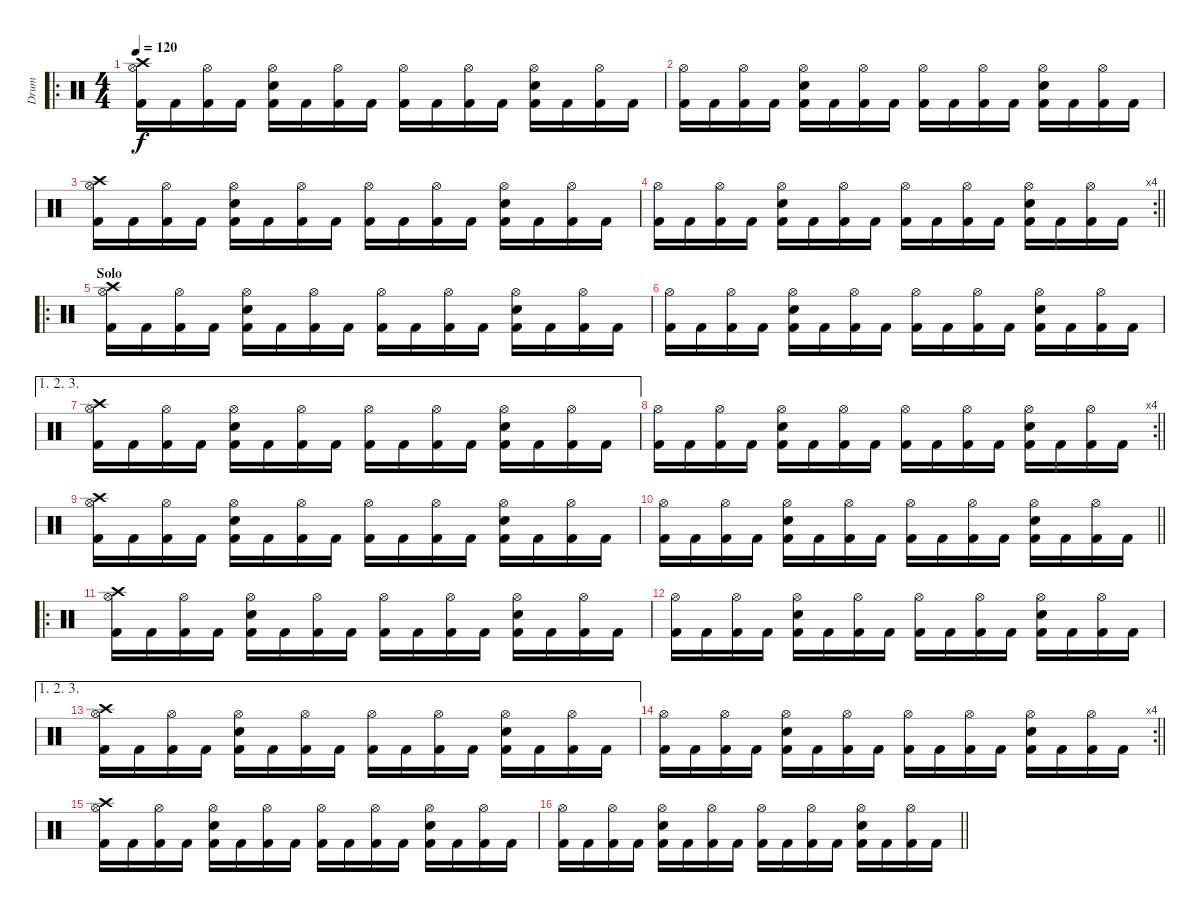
\track ("Drum" "Drum") {instrument percussion}
\staff {score}
\articulation defaults
\ro
\ts (4 4)
\tempo 120
\clef neutral
\ks c
("Hi-Hat (open)" "Crash high (hit)" "Kick (hit) 2").16{dy f} "Kick (hit) 2".16 ("Hi-Hat (open)" "Kick (hit) 2").16 "Kick (hit) 2".16 ("Hi-Hat (open)" "Snare (hit) 2" "Kick (hit) 2").16 "Kick (hit) 2".16 ("Hi-Hat (open)" "Kick (hit) 2").16 "Kick (hit) 2".16 ("Hi-Hat (open)" "Kick (hit) 2").16 "Kick (hit) 2".16 ("Hi-Hat (open)" "Kick (hit) 2").16 "Kick (hit) 2".16 ("Hi-Hat (open)" "Snare (hit) 2" "Kick (hit) 2").16 "Kick (hit) 2".16 ("Hi-Hat (open)" "Kick (hit) 2").16 "Kick (hit) 2".16 |
("Hi-Hat (open)" "Kick (hit) 2").16 "Kick (hit) 2".16 ("Hi-Hat (open)" "Kick (hit) 2").16 "Kick (hit) 2".16 ("Hi-Hat (open)" "Snare (hit) 2" "Kick (hit) 2").16 "Kick (hit) 2".16 ("Hi-Hat (open)" "Kick (hit) 2").16 "Kick (hit) 2".16 ("Hi-Hat (open)" "Kick (hit) 2").16 "Kick (hit) 2".16 ("Hi-Hat (open)" "Kick (hit) 2").16 "Kick (hit) 2".16 ("Hi-Hat (open)" "Snare (hit) 2" "Kick (hit) 2").16 "Kick (hit) 2".16 ("Hi-Hat (open)" "Kick (hit) 2").16 "Kick (hit) 2".16 |
("Hi-Hat (open)" "Crash high (hit)" "Kick (hit) 2").16 "Kick (hit) 2".16 ("Hi-Hat (open)" "Kick (hit) 2").16 "Kick (hit) 2".16 ("Hi-Hat (open)" "Snare (hit) 2" "Kick (hit) 2").16 "Kick (hit) 2".16 ("Hi-Hat (open)" "Kick (hit) 2").16 "Kick (hit) 2".16 ("Hi-Hat (open)" "Kick (hit) 2").16 "Kick (hit) 2".16 ("Hi-Hat (open)" "Kick (hit) 2").16 "Kick (hit) 2".16 ("Hi-Hat (open)" "Snare (hit) 2" "Kick (hit) 2").16 "Kick (hit) 2".16 ("Hi-Hat (open)" "Kick (hit) 2").16 "Kick (hit) 2".16 |
\rc 4
\barLineRight lightlight
("Hi-Hat (open)" "Kick (hit) 2").16 "Kick (hit) 2".16 ("Hi-Hat (open)" "Kick (hit) 2").16 "Kick (hit) 2".16 ("Hi-Hat (open)" "Snare (hit) 2" "Kick (hit) 2").16 "Kick (hit) 2".16 ("Hi-Hat (open)" "Kick (hit) 2").16 "Kick (hit) 2".16 ("Hi-Hat (open)" "Kick (hit) 2").16 "Kick (hit) 2".16 ("Hi-Hat (open)" "Kick (hit) 2").16 "Kick (hit) 2".16 ("Hi-Hat (open)" "Snare (hit) 2" "Kick (hit) 2").16 "Kick (hit) 2".16 ("Hi-Hat (open)" "Kick (hit) 2").16 "Kick (hit) 2".16 |
\ro
\section ("" "Solo")
("Hi-Hat (open)" "Crash high (hit)" "Kick (hit) 2").16 "Kick (hit) 2".16 ("Hi-Hat (open)" "Kick (hit) 2").16 "Kick (hit) 2".16 ("Hi-Hat (open)" "Snare (hit) 2" "Kick (hit) 2").16 "Kick (hit) 2".16 ("Hi-Hat (open)" "Kick (hit) 2").16 "Kick (hit) 2".16 ("Hi-Hat (open)" "Kick (hit) 2").16 "Kick (hit) 2".16 ("Hi-Hat (open)" "Kick (hit) 2").16 "Kick (hit) 2".16 ("Hi-Hat (open)" "Snare (hit) 2" "Kick (hit) 2").16 "Kick (hit) 2".16 ("Hi-Hat (open)" "Kick (hit) 2").16 "Kick (hit) 2".16 |
("Hi-Hat (open)" "Kick (hit) 2").16 "Kick (hit) 2".16 ("Hi-Hat (open)" "Kick (hit) 2").16 "Kick (hit) 2".16 ("Hi-Hat (open)" "Snare (hit) 2" "Kick (hit) 2").16 "Kick (hit) 2".16 ("Hi-Hat (open)" "Kick (hit) 2").16 "Kick (hit) 2".16 ("Hi-Hat (open)" "Kick (hit) 2").16 "Kick (hit) 2".16 ("Hi-Hat (open)" "Kick (hit) 2").16 "Kick (hit) 2".16 ("Hi-Hat (open)" "Snare (hit) 2" "Kick (hit) 2").16 "Kick (hit) 2".16 ("Hi-Hat (open)" "Kick (hit) 2").16 "Kick (hit) 2".16 |
\ae (1 2 3)
("Hi-Hat (open)" "Crash high (hit)" "Kick (hit) 2").16 "Kick (hit) 2".16 ("Hi-Hat (open)" "Kick (hit) 2").16 "Kick (hit) 2".16 ("Hi-Hat (open)" "Snare (hit) 2" "Kick (hit) 2").16 "Kick (hit) 2".16 ("Hi-Hat (open)" "Kick (hit) 2").16 "Kick (hit) 2".16 ("Hi-Hat (open)" "Kick (hit) 2").16 "Kick (hit) 2".16 ("Hi-Hat (open)" "Kick (hit) 2").16 "Kick (hit) 2".16 ("Hi-Hat (open)" "Snare (hit) 2" "Kick (hit) 2").16 "Kick (hit) 2".16 ("Hi-Hat (open)" "Kick (hit) 2").16 "Kick (hit) 2".16 |
\rc 4
\barLineRight lightlight
("Hi-Hat (open)" "Kick (hit) 2").16 "Kick (hit) 2".16 ("Hi-Hat (open)" "Kick (hit) 2").16 "Kick (hit) 2".16 ("Hi-Hat (open)" "Snare (hit) 2" "Kick (hit) 2").16 "Kick (hit) 2".16 ("Hi-Hat (open)" "Kick (hit) 2").16 "Kick (hit) 2".16 ("Hi-Hat (open)" "Kick (hit) 2").16 "Kick (hit) 2".16 ("Hi-Hat (open)" "Kick (hit) 2").16 "Kick (hit) 2".16 ("Hi-Hat (open)" "Snare (hit) 2" "Kick (hit) 2").16 "Kick (hit) 2".16 ("Hi-Hat (open)" "Kick (hit) 2").16 "Kick (hit) 2".16 |
("Hi-Hat (open)" "Crash high (hit)" "Kick (hit) 2").16 "Kick (hit) 2".16 ("Hi-Hat (open)" "Kick (hit) 2").16 "Kick (hit) 2".16 ("Hi-Hat (open)" "Snare (hit) 2" "Kick (hit) 2").16 "Kick (hit) 2".16 ("Hi-Hat (open)" "Kick (hit) 2").16 "Kick (hit) 2".16 ("Hi-Hat (open)" "Kick (hit) 2").16 "Kick (hit) 2".16 ("Hi-Hat (open)" "Kick (hit) 2").16 "Kick (hit) 2".16 ("Hi-Hat (open)" "Snare (hit) 2" "Kick (hit) 2").16 "Kick (hit) 2".16 ("Hi-Hat (open)" "Kick (hit) 2").16 "Kick (hit) 2".16 |
\barLineRight lightlight
("Hi-Hat (open)" "Kick (hit) 2").16 "Kick (hit) 2".16 ("Hi-Hat (open)" "Kick (hit) 2").16 "Kick (hit) 2".16 ("Hi-Hat (open)" "Snare (hit) 2" "Kick (hit) 2").16 "Kick (hit) 2".16 ("Hi-Hat (open)" "Kick (hit) 2").16 "Kick (hit) 2".16 ("Hi-Hat (open)" "Kick (hit) 2").16 "Kick (hit) 2".16 ("Hi-Hat (open)" "Kick (hit) 2").16 "Kick (hit) 2".16 ("Hi-Hat (open)" "Snare (hit) 2" "Kick (hit) 2").16 "Kick (hit) 2".16 ("Hi-Hat (open)" "Kick (hit) 2").16 "Kick (hit) 2".16 |
\ro
("Hi-Hat (open)" "Crash high (hit)" "Kick (hit) 2").16 "Kick (hit) 2".16 ("Hi-Hat (open)" "Kick (hit) 2").16 "Kick (hit) 2".16 ("Hi-Hat (open)" "Snare (hit) 2" "Kick (hit) 2").16 "Kick (hit) 2".16 ("Hi-Hat (open)" "Kick (hit) 2").16 "Kick (hit) 2".16 ("Hi-Hat (open)" "Kick (hit) 2").16 "Kick (hit) 2".16 ("Hi-Hat (open)" "Kick (hit) 2").16 "Kick (hit) 2".16 ("Hi-Hat (open)" "Snare (hit) 2" "Kick (hit) 2").16 "Kick (hit) 2".16 ("Hi-Hat (open)" "Kick (hit) 2").16 "Kick (hit) 2".16 |
("Hi-Hat (open)" "Kick (hit) 2").16 "Kick (hit) 2".16 ("Hi-Hat (open)" "Kick (hit) 2").16 "Kick (hit) 2".16 ("Hi-Hat (open)" "Snare (hit) 2" "Kick (hit) 2").16 "Kick (hit) 2".16 ("Hi-Hat (open)" "Kick (hit) 2").16 "Kick (hit) 2".16 ("Hi-Hat (open)" "Kick (hit) 2").16 "Kick (hit) 2".16 ("Hi-Hat (open)" "Kick (hit) 2").16 "Kick (hit) 2".16 ("Hi-Hat (open)" "Snare (hit) 2" "Kick (hit) 2").16 "Kick (hit) 2".16 ("Hi-Hat (open)" "Kick (hit) 2").16 "Kick (hit) 2".16 |
\ae (1 2 3)
("Hi-Hat (open)" "Crash high (hit)" "Kick (hit) 2").16 "Kick (hit) 2".16 ("Hi-Hat (open)" "Kick (hit) 2").16 "Kick (hit) 2".16 ("Hi-Hat (open)" "Snare (hit) 2" "Kick (hit) 2").16 "Kick (hit) 2".16 ("Hi-Hat (open)" "Kick (hit) 2").16 "Kick (hit) 2".16 ("Hi-Hat (open)" "Kick (hit) 2").16 "Kick (hit) 2".16 ("Hi-Hat (open)" "Kick (hit) 2").16 "Kick (hit) 2".16 ("Hi-Hat (open)" "Snare (hit) 2" "Kick (hit) 2").16 "Kick (hit) 2".16 ("Hi-Hat (open)" "Kick (hit) 2").16 "Kick (hit) 2".16 |
\rc 4
\barLineRight lightlight
("Hi-Hat (open)" "Kick (hit) 2").16 "Kick (hit) 2".16 ("Hi-Hat (open)" "Kick (hit) 2").16 "Kick (hit) 2".16 ("Hi-Hat (open)" "Snare (hit) 2" "Kick (hit) 2").16 "Kick (hit) 2".16 ("Hi-Hat (open)" "Kick (hit) 2").16 "Kick (hit) 2".16 ("Hi-Hat (open)" "Kick (hit) 2").16 "Kick (hit) 2".16 ("Hi-Hat (open)" "Kick (hit) 2").16 "Kick (hit) 2".16 ("Hi-Hat (open)" "Snare (hit) 2" "Kick (hit) 2").16 "Kick (hit) 2".16 ("Hi-Hat (open)" "Kick (hit) 2").16 "Kick (hit) 2".16 |
("Hi-Hat (open)" "Crash high (hit)" "Kick (hit) 2").16 "Kick (hit) 2".16 ("Hi-Hat (open)" "Kick (hit) 2").16 "Kick (hit) 2".16 ("Hi-Hat (open)" "Snare (hit) 2" "Kick (hit) 2").16 "Kick (hit) 2".16 ("Hi-Hat (open)" "Kick (hit) 2").16 "Kick (hit) 2".16 ("Hi-Hat (open)" "Kick (hit) 2").16 "Kick (hit) 2".16 ("Hi-Hat (open)" "Kick (hit) 2").16 "Kick (hit) 2".16 ("Hi-Hat (open)" "Snare (hit) 2" "Kick (hit) 2").16 "Kick (hit) 2".16 ("Hi-Hat (open)" "Kick (hit) 2").16 "Kick (hit) 2".16 |
\barLineRight lightlight
("Hi-Hat (open)" "Kick (hit) 2").16 "Kick (hit) 2".16 ("Hi-Hat (open)" "Kick (hit) 2").16 "Kick (hit) 2".16 ("Hi-Hat (open)" "Snare (hit) 2" "Kick (hit) 2").16 "Kick (hit) 2".16 ("Hi-Hat (open)" "Kick (hit) 2").16 "Kick (hit) 2".16 ("Hi-Hat (open)" "Kick (hit) 2").16 "Kick (hit) 2".16 ("Hi-Hat (open)" "Kick (hit) 2").16 "Kick (hit) 2".16 ("Hi-Hat (open)" "Snare (hit) 2" "Kick (hit) 2").16 "Kick (hit) 2".16 ("Hi-Hat (open)" "Kick (hit) 2").16 "Kick (hit) 2".16
